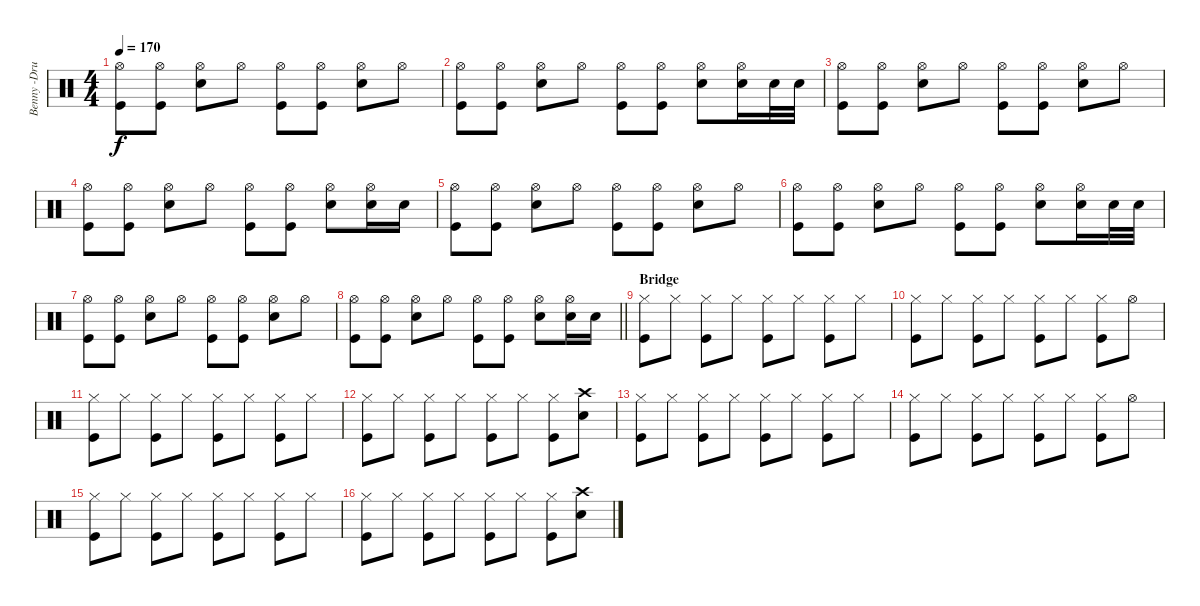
\track ("Benny -Drums" "Benny -Dru") {instrument percussion}
\staff {score}
\articulation defaults
\ts (4 4)
\tempo 170
\clef neutral
\ks c
("Hi-Hat (open)" "Kick (hit)").8{dy f} ("Hi-Hat (open)" "Kick (hit)").8 ("Hi-Hat (open)" "Snare (hit) 2").8 "Hi-Hat (open)".8 ("Hi-Hat (open)" "Kick (hit)").8 ("Hi-Hat (open)" "Kick (hit)").8 ("Hi-Hat (open)" "Snare (hit) 2").8 "Hi-Hat (open)".8 |
("Hi-Hat (open)" "Kick (hit)").8 ("Hi-Hat (open)" "Kick (hit)").8 ("Hi-Hat (open)" "Snare (hit) 2").8 "Hi-Hat (open)".8 ("Hi-Hat (open)" "Kick (hit)").8 ("Hi-Hat (open)" "Kick (hit)").8 ("Hi-Hat (open)" "Snare (hit) 2").8 ("Hi-Hat (open)" "Snare (hit) 2").16 "Snare (hit) 2".32 "Snare (hit) 2".32 |
("Hi-Hat (open)" "Kick (hit)").8 ("Hi-Hat (open)" "Kick (hit)").8 ("Hi-Hat (open)" "Snare (hit) 2").8 "Hi-Hat (open)".8 ("Hi-Hat (open)" "Kick (hit)").8 ("Hi-Hat (open)" "Kick (hit)").8 ("Hi-Hat (open)" "Snare (hit) 2").8 "Hi-Hat (open)".8 |
("Hi-Hat (open)" "Kick (hit)").8 ("Hi-Hat (open)" "Kick (hit)").8 ("Hi-Hat (open)" "Snare (hit) 2").8 "Hi-Hat (open)".8 ("Hi-Hat (open)" "Kick (hit)").8 ("Hi-Hat (open)" "Kick (hit)").8 ("Hi-Hat (open)" "Snare (hit) 2").8 ("Hi-Hat (open)" "Snare (hit) 2").16 "Snare (hit) 2".16 |
("Hi-Hat (open)" "Kick (hit)").8 ("Hi-Hat (open)" "Kick (hit)").8 ("Hi-Hat (open)" "Snare (hit) 2").8 "Hi-Hat (open)".8 ("Hi-Hat (open)" "Kick (hit)").8 ("Hi-Hat (open)" "Kick (hit)").8 ("Hi-Hat (open)" "Snare (hit) 2").8 "Hi-Hat (open)".8 |
("Hi-Hat (open)" "Kick (hit)").8 ("Hi-Hat (open)" "Kick (hit)").8 ("Hi-Hat (open)" "Snare (hit) 2").8 "Hi-Hat (open)".8 ("Hi-Hat (open)" "Kick (hit)").8 ("Hi-Hat (open)" "Kick (hit)").8 ("Hi-Hat (open)" "Snare (hit) 2").8 ("Hi-Hat (open)" "Snare (hit) 2").16 "Snare (hit) 2".32 "Snare (hit) 2".32 |
("Hi-Hat (open)" "Kick (hit)").8 ("Hi-Hat (open)" "Kick (hit)").8 ("Hi-Hat (open)" "Snare (hit) 2").8 "Hi-Hat (open)".8 ("Hi-Hat (open)" "Kick (hit)").8 ("Hi-Hat (open)" "Kick (hit)").8 ("Hi-Hat (open)" "Snare (hit) 2").8 "Hi-Hat (open)".8 |
\barLineRight lightlight
("Hi-Hat (open)" "Kick (hit)").8 ("Hi-Hat (open)" "Kick (hit)").8 ("Hi-Hat (open)" "Snare (hit) 2").8 "Hi-Hat (open)".8 ("Hi-Hat (open)" "Kick (hit)").8 ("Hi-Hat (open)" "Kick (hit)").8 ("Hi-Hat (open)" "Snare (hit) 2").8 ("Hi-Hat (open)" "Snare (hit) 2").16 "Snare (hit) 2".16 |
\section ("" "Bridge")
("Hi-Hat (closed)" "Kick (hit)").8 "Hi-Hat (closed)".8 ("Hi-Hat (closed)" "Kick (hit)").8 "Hi-Hat (closed)".8 ("Hi-Hat (closed)" "Kick (hit)").8 "Hi-Hat (closed)".8 ("Hi-Hat (closed)" "Kick (hit)").8 "Hi-Hat (closed)".8 |
("Hi-Hat (closed)" "Kick (hit)").8 "Hi-Hat (closed)".8 ("Hi-Hat (closed)" "Kick (hit)").8 "Hi-Hat (closed)".8 ("Hi-Hat (closed)" "Kick (hit)").8 "Hi-Hat (closed)".8 ("Hi-Hat (closed)" "Kick (hit)").8 "Hi-Hat (open)".8 |
("Hi-Hat (closed)" "Kick (hit)").8 "Hi-Hat (closed)".8 ("Hi-Hat (closed)" "Kick (hit)").8 "Hi-Hat (closed)".8 ("Hi-Hat (closed)" "Kick (hit)").8 "Hi-Hat (closed)".8 ("Hi-Hat (closed)" "Kick (hit)").8 "Hi-Hat (closed)".8 |
("Hi-Hat (closed)" "Kick (hit)").8 "Hi-Hat (closed)".8 ("Hi-Hat (closed)" "Kick (hit)").8 "Hi-Hat (closed)".8 ("Hi-Hat (closed)" "Kick (hit)").8 "Hi-Hat (closed)".8 ("Hi-Hat (closed)" "Kick (hit)").8 ("Crash high (hit)" "Electric Snare (hit)").8 |
("Hi-Hat (closed)" "Kick (hit)").8 "Hi-Hat (closed)".8 ("Hi-Hat (closed)" "Kick (hit)").8 "Hi-Hat (closed)".8 ("Hi-Hat (closed)" "Kick (hit)").8 "Hi-Hat (closed)".8 ("Hi-Hat (closed)" "Kick (hit)").8 "Hi-Hat (closed)".8 |
("Hi-Hat (closed)" "Kick (hit)").8 "Hi-Hat (closed)".8 ("Hi-Hat (closed)" "Kick (hit)").8 "Hi-Hat (closed)".8 ("Hi-Hat (closed)" "Kick (hit)").8 "Hi-Hat (closed)".8 ("Hi-Hat (closed)" "Kick (hit)").8 "Hi-Hat (open)".8 |
("Hi-Hat (closed)" "Kick (hit)").8 "Hi-Hat (closed)".8 ("Hi-Hat (closed)" "Kick (hit)").8 "Hi-Hat (closed)".8 ("Hi-Hat (closed)" "Kick (hit)").8 "Hi-Hat (closed)".8 ("Hi-Hat (closed)" "Kick (hit)").8 "Hi-Hat (closed)".8 |
("Hi-Hat (closed)" "Kick (hit)").8 "Hi-Hat (closed)".8 ("Hi-Hat (closed)" "Kick (hit)").8 "Hi-Hat (closed)".8 ("Hi-Hat (closed)" "Kick (hit)").8 "Hi-Hat (closed)".8 ("Hi-Hat (closed)" "Kick (hit)").8 ("Crash high (hit)" "Electric Snare (hit)").8
